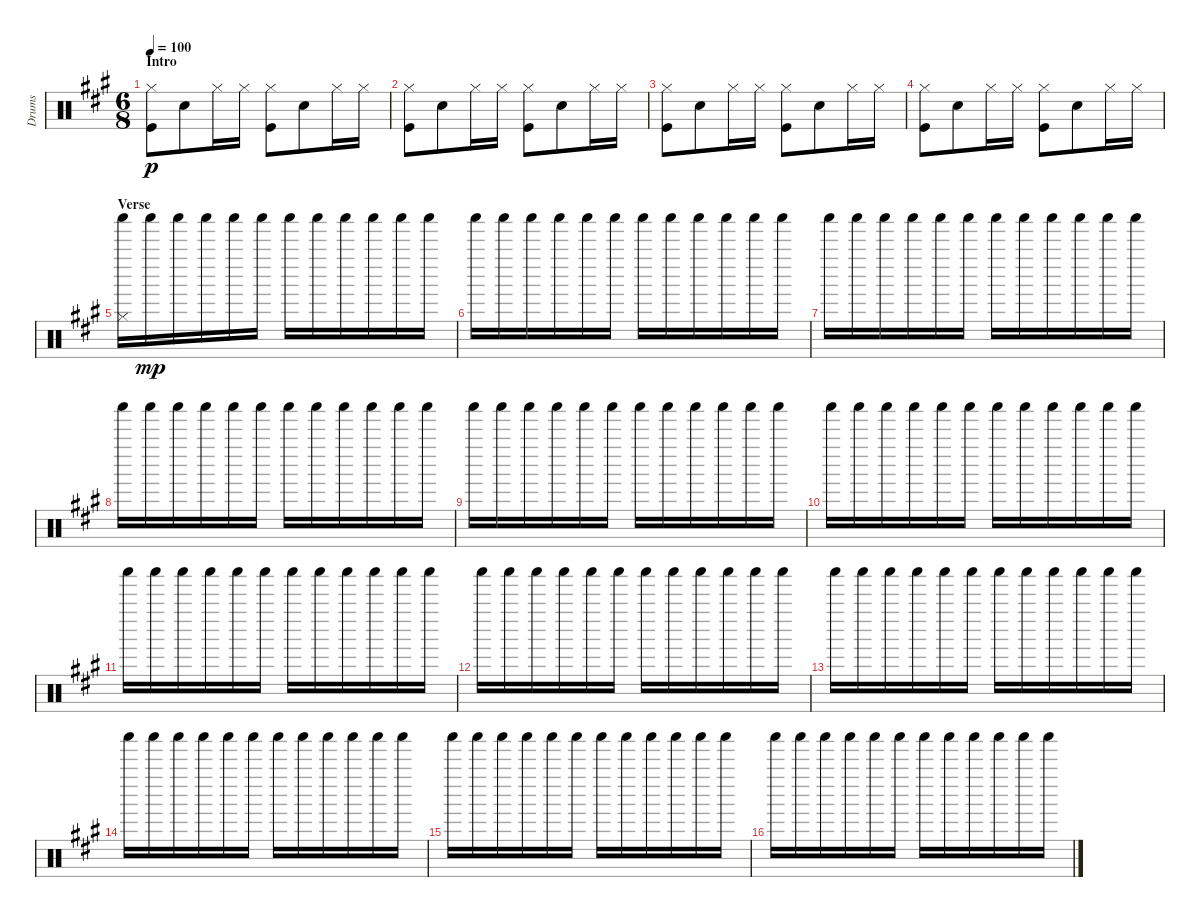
\track ("Drums" "Drums") {instrument percussion}
\staff {score}
\articulation defaults
\ts (6 8)
\section ("" "Intro")
\tempo 100
\clef neutral
\ks a
("Hi-Hat (closed)" "Kick (hit)").8{dy p} "Electric Snare (hit)".8 "Hi-Hat (closed)".16 "Hi-Hat (closed)".16 ("Hi-Hat (closed)" "Kick (hit)").8 "Electric Snare (hit)".8 "Hi-Hat (closed)".16 "Hi-Hat (closed)".16 |
("Hi-Hat (closed)" "Kick (hit)").8 "Electric Snare (hit)".8 "Hi-Hat (closed)".16 "Hi-Hat (closed)".16 ("Hi-Hat (closed)" "Kick (hit)").8 "Electric Snare (hit)".8 "Hi-Hat (closed)".16 "Hi-Hat (closed)".16 |
("Hi-Hat (closed)" "Kick (hit)").8 "Electric Snare (hit)".8 "Hi-Hat (closed)".16 "Hi-Hat (closed)".16 ("Hi-Hat (closed)" "Kick (hit)").8 "Electric Snare (hit)".8 "Hi-Hat (closed)".16 "Hi-Hat (closed)".16 |
("Hi-Hat (closed)" "Kick (hit)").8 "Electric Snare (hit)".8 "Hi-Hat (closed)".16 "Hi-Hat (closed)".16 ("Hi-Hat (closed)" "Kick (hit)").8 "Electric Snare (hit)".8 "Hi-Hat (closed)".16 "Hi-Hat (closed)".16 |
\section ("" "Verse")
("Shaker (hit)" "Hi-Hat (closed)").16 "Shaker (hit)".16{dy mp} "Shaker (hit)".16 "Shaker (hit)".16 "Shaker (hit)".16 "Shaker (hit)".16 "Shaker (hit)".16 "Shaker (hit)".16 "Shaker (hit)".16 "Shaker (hit)".16 "Shaker (hit)".16 "Shaker (hit)".16 |
"Shaker (hit)".16 "Shaker (hit)".16 "Shaker (hit)".16 "Shaker (hit)".16 "Shaker (hit)".16 "Shaker (hit)".16 "Shaker (hit)".16 "Shaker (hit)".16 "Shaker (hit)".16 "Shaker (hit)".16 "Shaker (hit)".16 "Shaker (hit)".16 |
"Shaker (hit)".16 "Shaker (hit)".16 "Shaker (hit)".16 "Shaker (hit)".16 "Shaker (hit)".16 "Shaker (hit)".16 "Shaker (hit)".16 "Shaker (hit)".16 "Shaker (hit)".16 "Shaker (hit)".16 "Shaker (hit)".16 "Shaker (hit)".16 |
"Shaker (hit)".16 "Shaker (hit)".16 "Shaker (hit)".16 "Shaker (hit)".16 "Shaker (hit)".16 "Shaker (hit)".16 "Shaker (hit)".16 "Shaker (hit)".16 "Shaker (hit)".16 "Shaker (hit)".16 "Shaker (hit)".16 "Shaker (hit)".16 |
"Shaker (hit)".16 "Shaker (hit)".16 "Shaker (hit)".16 "Shaker (hit)".16 "Shaker (hit)".16 "Shaker (hit)".16 "Shaker (hit)".16 "Shaker (hit)".16 "Shaker (hit)".16 "Shaker (hit)".16 "Shaker (hit)".16 "Shaker (hit)".16 |
"Shaker (hit)".16 "Shaker (hit)".16 "Shaker (hit)".16 "Shaker (hit)".16 "Shaker (hit)".16 "Shaker (hit)".16 "Shaker (hit)".16 "Shaker (hit)".16 "Shaker (hit)".16 "Shaker (hit)".16 "Shaker (hit)".16 "Shaker (hit)".16 |
"Shaker (hit)".16 "Shaker (hit)".16 "Shaker (hit)".16 "Shaker (hit)".16 "Shaker (hit)".16 "Shaker (hit)".16 "Shaker (hit)".16 "Shaker (hit)".16 "Shaker (hit)".16 "Shaker (hit)".16 "Shaker (hit)".16 "Shaker (hit)".16 |
"Shaker (hit)".16 "Shaker (hit)".16 "Shaker (hit)".16 "Shaker (hit)".16 "Shaker (hit)".16 "Shaker (hit)".16 "Shaker (hit)".16 "Shaker (hit)".16 "Shaker (hit)".16 "Shaker (hit)".16 "Shaker (hit)".16 "Shaker (hit)".16 |
"Shaker (hit)".16 "Shaker (hit)".16 "Shaker (hit)".16 "Shaker (hit)".16 "Shaker (hit)".16 "Shaker (hit)".16 "Shaker (hit)".16 "Shaker (hit)".16 "Shaker (hit)".16 "Shaker (hit)".16 "Shaker (hit)".16 "Shaker (hit)".16 |
"Shaker (hit)".16 "Shaker (hit)".16 "Shaker (hit)".16 "Shaker (hit)".16 "Shaker (hit)".16 "Shaker (hit)".16 "Shaker (hit)".16 "Shaker (hit)".16 "Shaker (hit)".16 "Shaker (hit)".16 "Shaker (hit)".16 "Shaker (hit)".16 |
"Shaker (hit)".16 "Shaker (hit)".16 "Shaker (hit)".16 "Shaker (hit)".16 "Shaker (hit)".16 "Shaker (hit)".16 "Shaker (hit)".16 "Shaker (hit)".16 "Shaker (hit)".16 "Shaker (hit)".16 "Shaker (hit)".16 "Shaker (hit)".16 |
"Shaker (hit)".16 "Shaker (hit)".16 "Shaker (hit)".16 "Shaker (hit)".16 "Shaker (hit)".16 "Shaker (hit)".16 "Shaker (hit)".16 "Shaker (hit)".16 "Shaker (hit)".16 "Shaker (hit)".16 "Shaker (hit)".16 "Shaker (hit)".16
